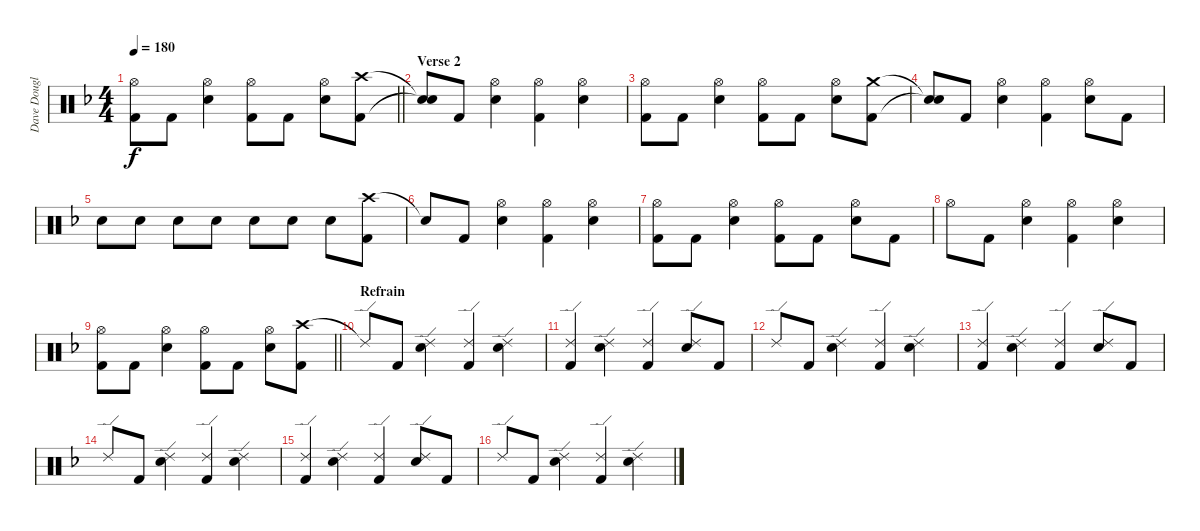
\track ("Dave Douglas (Drum)" "Dave Dougl") {instrument percussion}
\staff {score}
\articulation defaults
\ts (4 4)
\tempo 180
\clef neutral
\barLineRight lightlight
\ks dminor
("Hi-Hat (open)" "Kick (hit) 2").8{dy f} "Kick (hit) 2".8 ("Hi-Hat (open)" "Snare (hit) 2").4 ("Hi-Hat (open)" "Kick (hit) 2").8 "Kick (hit) 2".8 ("Hi-Hat (open)" "Snare (hit) 2").8 ("Crash high (hit)" "Kick (hit) 2").8 |
\section ("" "Verse 2")
("Snare (hit)"{t} "Snare (hit)"{t}).8 "Kick (hit) 2".8 ("Hi-Hat (open)" "Snare (hit) 2").4 ("Hi-Hat (open)" "Kick (hit) 2").4 ("Hi-Hat (open)" "Snare (hit) 2").4 |
("Hi-Hat (open)" "Kick (hit) 2").8 "Kick (hit) 2".8 ("Hi-Hat (open)" "Snare (hit) 2").4 ("Hi-Hat (open)" "Kick (hit) 2").8 "Kick (hit) 2".8 ("Hi-Hat (open)" "Snare (hit) 2").8 ("Crash medium (hit)" "Kick (hit) 2").8 |
("Snare (hit)"{t} "Snare (hit)"{t}).8 "Kick (hit) 2".8 ("Hi-Hat (open)" "Snare (hit) 2").4 ("Hi-Hat (open)" "Kick (hit) 2").4 ("Hi-Hat (open)" "Snare (hit) 2").8 "Kick (hit) 2".8 |
"Snare (hit) 2".8 "Snare (hit) 2".8 "Snare (hit) 2".8 "Snare (hit) 2".8 "Snare (hit) 2".8 "Snare (hit) 2".8 "Snare (hit) 2".8 ("Crash high (hit)" "Kick (hit) 2").8 |
"Snare (hit)"{t}.8 "Kick (hit) 2".8 ("Hi-Hat (open)" "Snare (hit) 2").4 ("Hi-Hat (open)" "Kick (hit) 2").4 ("Hi-Hat (open)" "Snare (hit) 2").4 |
("Hi-Hat (open)" "Kick (hit) 2").8 "Kick (hit) 2".8 ("Hi-Hat (open)" "Snare (hit) 2").4 ("Hi-Hat (open)" "Kick (hit) 2").8 "Kick (hit) 2".8 ("Hi-Hat (open)" "Snare (hit) 2").8 "Kick (hit) 2".8 |
"Hi-Hat (open)".8 "Kick (hit) 2".8 ("Hi-Hat (open)" "Snare (hit) 2").4 ("Hi-Hat (open)" "Kick (hit) 2").4 ("Hi-Hat (open)" "Snare (hit) 2").4 |
\barLineRight lightlight
("Hi-Hat (open)" "Kick (hit) 2").8 "Kick (hit) 2".8 ("Hi-Hat (open)" "Snare (hit) 2").4 ("Hi-Hat (open)" "Kick (hit) 2").8 "Kick (hit) 2".8 ("Hi-Hat (open)" "Snare (hit) 2").8 ("Crash high (hit)" "Kick (hit) 2").8 |
\section ("" "Refrain")
"Ride (edge) 2"{t}.8 "Kick (hit) 2".8 ("Ride (edge) 2" "Snare (hit) 2").4 ("Ride (edge) 2" "Kick (hit) 2").4 ("Ride (edge) 2" "Snare (hit) 2").4 |
("Ride (edge) 2" "Kick (hit) 2").4 ("Ride (edge) 2" "Snare (hit) 2").4 ("Ride (edge) 2" "Kick (hit) 2").4 ("Ride (edge) 2" "Snare (hit) 2").8 "Kick (hit) 2".8 |
"Ride (edge) 2".8 "Kick (hit) 2".8 ("Ride (edge) 2" "Snare (hit) 2").4 ("Ride (edge) 2" "Kick (hit) 2").4 ("Ride (edge) 2" "Snare (hit) 2").4 |
("Ride (edge) 2" "Kick (hit) 2").4 ("Ride (edge) 2" "Snare (hit) 2").4 ("Ride (edge) 2" "Kick (hit) 2").4 ("Ride (edge) 2" "Snare (hit) 2").8 "Kick (hit) 2".8 |
"Ride (edge) 2".8 "Kick (hit) 2".8 ("Ride (edge) 2" "Snare (hit) 2").4 ("Ride (edge) 2" "Kick (hit) 2").4 ("Ride (edge) 2" "Snare (hit) 2").4 |
("Ride (edge) 2" "Kick (hit) 2").4 ("Ride (edge) 2" "Snare (hit) 2").4 ("Ride (edge) 2" "Kick (hit) 2").4 ("Ride (edge) 2" "Snare (hit) 2").8 "Kick (hit) 2".8 |
"Ride (edge) 2".8 "Kick (hit) 2".8 ("Ride (edge) 2" "Snare (hit) 2").4 ("Ride (edge) 2" "Kick (hit) 2").4 ("Ride (edge) 2" "Snare (hit) 2").4
